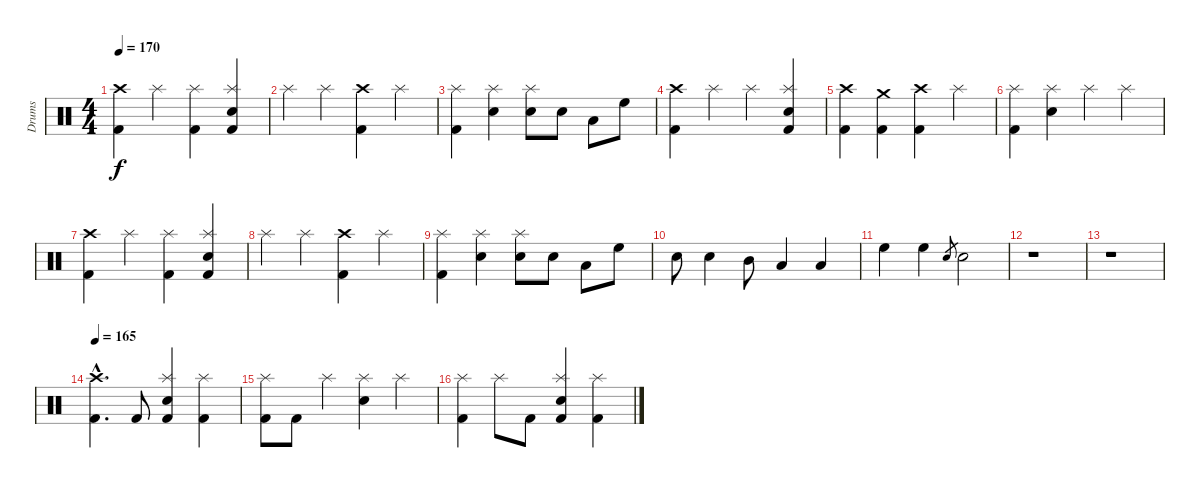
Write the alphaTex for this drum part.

\track ("Drums" "Drums") {instrument percussion}
\staff {score}
\articulation defaults
\ts (4 4)
\tempo 170
\clef neutral
\ks c
("Kick (hit) 2" "Crash high (hit)").4{dy f} "Splash (hit)".4 ("Kick (hit) 2" "Splash (hit)").4 ("Kick (hit) 2" "Snare (hit) 2" "Splash (hit)").4 |
"Splash (hit)".4 "Splash (hit)".4 ("Kick (hit) 2" "Crash high (hit)").4 "Splash (hit)".4 |
("Kick (hit) 2" "Splash (hit)").4 ("Snare (hit) 2" "Splash (hit)").4 ("Snare (hit) 2" "Splash (hit)").8 "Snare (hit) 2".8 "Low Tom (hit)".8 "High Floor Tom (hit)".8 |
("Kick (hit) 2" "Crash high (hit)").4 "Splash (hit)".4 "Splash (hit)".4 ("Kick (hit) 2" "Snare (hit) 2" "Splash (hit)").4 |
("Kick (hit) 2" "Crash high (hit)").4 ("Kick (hit) 2" "Crash medium (hit)").4 ("Kick (hit) 2" "Crash high (hit)").4 "Splash (hit)".4 |
("Kick (hit) 2" "Splash (hit)").4 ("Snare (hit) 2" "Splash (hit)").4 "Splash (hit)".4 "Splash (hit)".4 |
("Kick (hit) 2" "Crash high (hit)").4 "Splash (hit)".4 ("Kick (hit) 2" "Splash (hit)").4 ("Kick (hit) 2" "Snare (hit) 2" "Splash (hit)").4 |
"Splash (hit)".4 "Splash (hit)".4 ("Kick (hit) 2" "Crash high (hit)").4 "Splash (hit)".4 |
("Kick (hit) 2" "Splash (hit)").4 ("Snare (hit) 2" "Splash (hit)").4 ("Snare (hit) 2" "Splash (hit)").8 "Snare (hit) 2".8 "Low Tom (hit)".8 "High Floor Tom (hit)".8 |
"Snare (hit) 2".8 "Snare (hit) 2".4 "Mid Tom (hit)".8 "Low Tom (hit)".4 "Low Tom (hit)".4 |
"High Floor Tom (hit)".4 "High Floor Tom (hit)".4 "Snare (hit) 2".8{gr} "Snare (hit) 2".2 |
r.1 |
r.1 |
\tempo 165
("Kick (hit) 2"{hac} "Crash high (hit)"{hac}).4{d} "Kick (hit) 2".8 ("Kick (hit) 2" "Snare (hit) 2" "Splash (hit)").4 ("Kick (hit) 2" "Splash (hit)").4 |
("Kick (hit) 2" "Splash (hit)").8 "Kick (hit) 2".8 "Splash (hit)".4 ("Snare (hit) 2" "Splash (hit)").4 "Splash (hit)".4 |
("Kick (hit) 2" "Splash (hit)").4 "Splash (hit)".8 "Kick (hit) 2".8 ("Kick (hit) 2" "Snare (hit) 2" "Splash (hit)").4 ("Kick (hit) 2" "Splash (hit)").4
